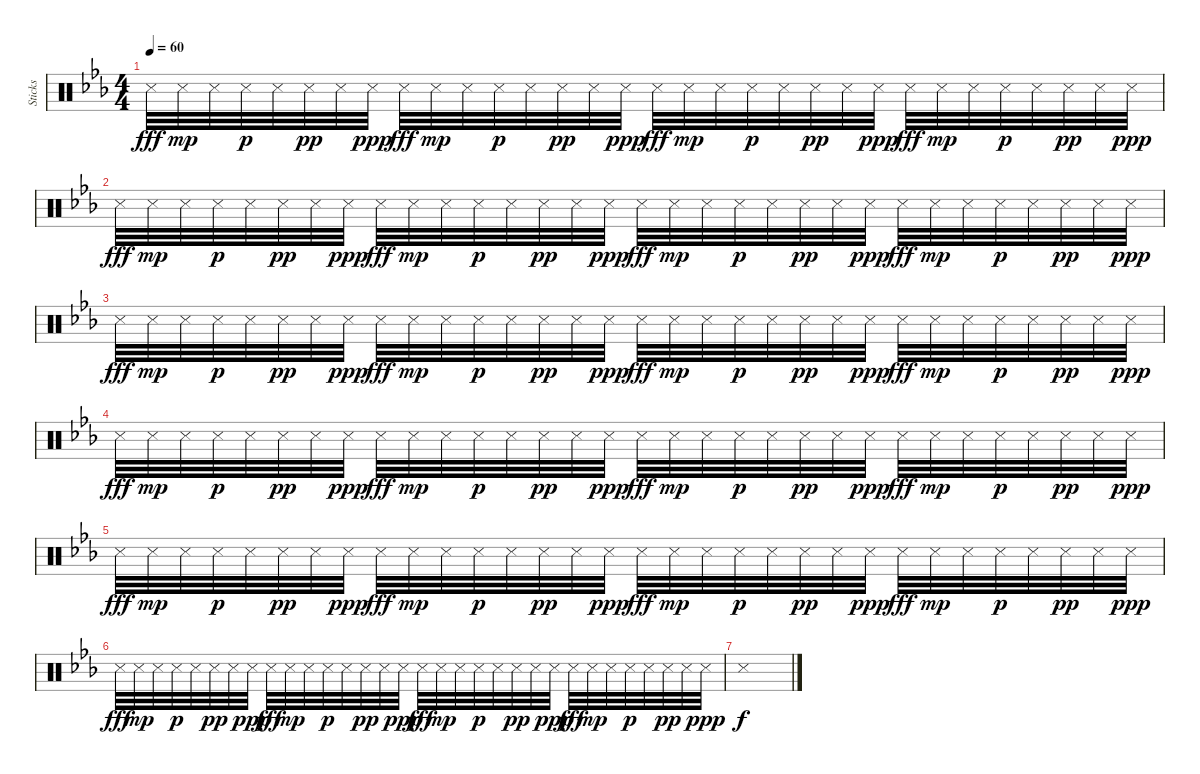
\track ("Sticks" "Sticks") {instrument percussion}
\staff {score}
\articulation defaults
\ts (4 4)
\tempo 60
\clef neutral
\ks eb "Snare (side stick) 3".32{dy fff} "Snare (side stick) 3".32{dy mp} "Snare (side stick) 3".32 "Snare (side stick) 3".32{dy p} "Snare (side stick) 3".32 "Snare (side stick) 3".32{dy pp} "Snare (side stick) 3".32 "Snare (side stick) 3".32{dy ppp} "Snare (side stick) 3".32{dy fff} "Snare (side stick) 3".32{dy mp} "Snare (side stick) 3".32 "Snare (side stick) 3".32{dy p} "Snare (side stick) 3".32 "Snare (side stick) 3".32{dy pp} "Snare (side stick) 3".32 "Snare (side stick) 3".32{dy ppp} "Snare (side stick) 3".32{dy fff} "Snare (side stick) 3".32{dy mp} "Snare (side stick) 3".32 "Snare (side stick) 3".32{dy p} "Snare (side stick) 3".32 "Snare (side stick) 3".32{dy pp} "Snare (side stick) 3".32 "Snare (side stick) 3".32{dy ppp} "Snare (side stick) 3".32{dy fff} "Snare (side stick) 3".32{dy mp} "Snare (side stick) 3".32 "Snare (side stick) 3".32{dy p} "Snare (side stick) 3".32 "Snare (side stick) 3".32{dy pp} "Snare (side stick) 3".32 "Snare (side stick) 3".32{dy ppp}
|
"Snare (side stick) 3".32{dy fff} "Snare (side stick) 3".32{dy mp} "Snare (side stick) 3".32 "Snare (side stick) 3".32{dy p} "Snare (side stick) 3".32 "Snare (side stick) 3".32{dy pp} "Snare (side stick) 3".32 "Snare (side stick) 3".32{dy ppp} "Snare (side stick) 3".32{dy fff} "Snare (side stick) 3".32{dy mp} "Snare (side stick) 3".32 "Snare (side stick) 3".32{dy p} "Snare (side stick) 3".32 "Snare (side stick) 3".32{dy pp} "Snare (side stick) 3".32 "Snare (side stick) 3".32{dy ppp} "Snare (side stick) 3".32{dy fff} "Snare (side stick) 3".32{dy mp} "Snare (side stick) 3".32 "Snare (side stick) 3".32{dy p} "Snare (side stick) 3".32 "Snare (side stick) 3".32{dy pp} "Snare (side stick) 3".32 "Snare (side stick) 3".32{dy ppp} "Snare (side stick) 3".32{dy fff} "Snare (side stick) 3".32{dy mp} "Snare (side stick) 3".32 "Snare (side stick) 3".32{dy p} "Snare (side stick) 3".32 "Snare (side stick) 3".32{dy pp} "Snare (side stick) 3".32 "Snare (side stick) 3".32{dy ppp} |
"Snare (side stick) 3".32{dy fff} "Snare (side stick) 3".32{dy mp} "Snare (side stick) 3".32 "Snare (side stick) 3".32{dy p} "Snare (side stick) 3".32 "Snare (side stick) 3".32{dy pp} "Snare (side stick) 3".32 "Snare (side stick) 3".32{dy ppp} "Snare (side stick) 3".32{dy fff} "Snare (side stick) 3".32{dy mp} "Snare (side stick) 3".32 "Snare (side stick) 3".32{dy p} "Snare (side stick) 3".32 "Snare (side stick) 3".32{dy pp} "Snare (side stick) 3".32 "Snare (side stick) 3".32{dy ppp} "Snare (side stick) 3".32{dy fff} "Snare (side stick) 3".32{dy mp} "Snare (side stick) 3".32 "Snare (side stick) 3".32{dy p} "Snare (side stick) 3".32 "Snare (side stick) 3".32{dy pp} "Snare (side stick) 3".32 "Snare (side stick) 3".32{dy ppp} "Snare (side stick) 3".32{dy fff} "Snare (side stick) 3".32{dy mp} "Snare (side stick) 3".32 "Snare (side stick) 3".32{dy p} "Snare (side stick) 3".32 "Snare (side stick) 3".32{dy pp} "Snare (side stick) 3".32 "Snare (side stick) 3".32{dy ppp} |
"Snare (side stick) 3".32{dy fff} "Snare (side stick) 3".32{dy mp} "Snare (side stick) 3".32 "Snare (side stick) 3".32{dy p} "Snare (side stick) 3".32 "Snare (side stick) 3".32{dy pp} "Snare (side stick) 3".32 "Snare (side stick) 3".32{dy ppp} "Snare (side stick) 3".32{dy fff} "Snare (side stick) 3".32{dy mp} "Snare (side stick) 3".32 "Snare (side stick) 3".32{dy p} "Snare (side stick) 3".32 "Snare (side stick) 3".32{dy pp} "Snare (side stick) 3".32 "Snare (side stick) 3".32{dy ppp} "Snare (side stick) 3".32{dy fff} "Snare (side stick) 3".32{dy mp} "Snare (side stick) 3".32 "Snare (side stick) 3".32{dy p} "Snare (side stick) 3".32 "Snare (side stick) 3".32{dy pp} "Snare (side stick) 3".32 "Snare (side stick) 3".32{dy ppp} "Snare (side stick) 3".32{dy fff} "Snare (side stick) 3".32{dy mp} "Snare (side stick) 3".32 "Snare (side stick) 3".32{dy p} "Snare (side stick) 3".32 "Snare (side stick) 3".32{dy pp} "Snare (side stick) 3".32 "Snare (side stick) 3".32{dy ppp} |
"Snare (side stick) 3".32{dy fff} "Snare (side stick) 3".32{dy mp} "Snare (side stick) 3".32 "Snare (side stick) 3".32{dy p} "Snare (side stick) 3".32 "Snare (side stick) 3".32{dy pp} "Snare (side stick) 3".32 "Snare (side stick) 3".32{dy ppp} "Snare (side stick) 3".32{dy fff} "Snare (side stick) 3".32{dy mp} "Snare (side stick) 3".32 "Snare (side stick) 3".32{dy p} "Snare (side stick) 3".32 "Snare (side stick) 3".32{dy pp} "Snare (side stick) 3".32 "Snare (side stick) 3".32{dy ppp} "Snare (side stick) 3".32{dy fff} "Snare (side stick) 3".32{dy mp} "Snare (side stick) 3".32 "Snare (side stick) 3".32{dy p} "Snare (side stick) 3".32 "Snare (side stick) 3".32{dy pp} "Snare (side stick) 3".32 "Snare (side stick) 3".32{dy ppp} "Snare (side stick) 3".32{dy fff} "Snare (side stick) 3".32{dy mp} "Snare (side stick) 3".32 "Snare (side stick) 3".32{dy p} "Snare (side stick) 3".32 "Snare (side stick) 3".32{dy pp} "Snare (side stick) 3".32 "Snare (side stick) 3".32{dy ppp} |
"Snare (side stick) 3".32{dy fff} "Snare (side stick) 3".32{dy mp} "Snare (side stick) 3".32 "Snare (side stick) 3".32{dy p} "Snare (side stick) 3".32 "Snare (side stick) 3".32{dy pp} "Snare (side stick) 3".32 "Snare (side stick) 3".32{dy ppp} "Snare (side stick) 3".32{dy fff} "Snare (side stick) 3".32{dy mp} "Snare (side stick) 3".32 "Snare (side stick) 3".32{dy p} "Snare (side stick) 3".32 "Snare (side stick) 3".32{dy pp} "Snare (side stick) 3".32 "Snare (side stick) 3".32{dy ppp} "Snare (side stick) 3".32{dy fff} "Snare (side stick) 3".32{dy mp} "Snare (side stick) 3".32 "Snare (side stick) 3".32{dy p} "Snare (side stick) 3".32 "Snare (side stick) 3".32{dy pp} "Snare (side stick) 3".32 "Snare (side stick) 3".32{dy ppp} "Snare (side stick) 3".32{dy fff} "Snare (side stick) 3".32{dy mp} "Snare (side stick) 3".32 "Snare (side stick) 3".32{dy p} "Snare (side stick) 3".32 "Snare (side stick) 3".32{dy pp} "Snare (side stick) 3".32 "Snare (side stick) 3".32{dy ppp} |
"Snare (side stick) 3".1{dy f}
